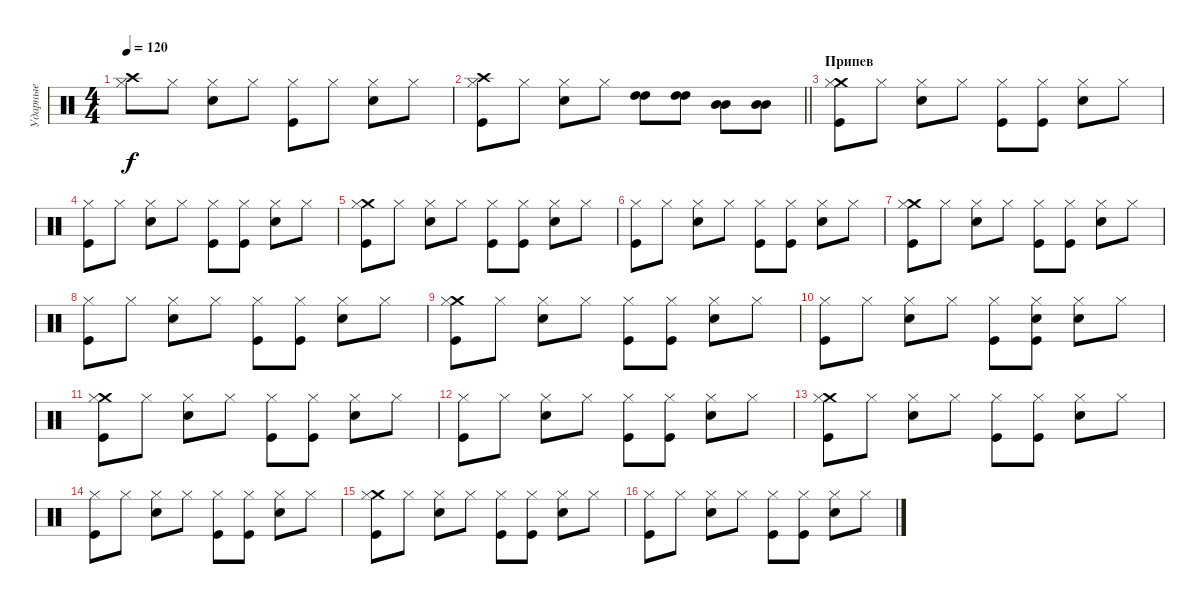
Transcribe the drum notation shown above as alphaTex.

\track ("Ударные" "Ударные") {instrument percussion}
\staff {score}
\articulation defaults
\ts (4 4)
\tempo 120
\clef neutral
\ks c
("Hi-Hat (closed)" "Crash high (hit)").8{dy f} "Hi-Hat (closed)".8 ("Snare (hit) 2" "Hi-Hat (closed)").8 "Hi-Hat (closed)".8 ("Kick (hit)" "Hi-Hat (closed)").8 "Hi-Hat (closed)".8 ("Snare (hit) 2" "Hi-Hat (closed)").8 "Hi-Hat (closed)".8 |
\barLineRight lightlight
("Kick (hit)" "Hi-Hat (closed)" "Crash high (hit)").8 "Hi-Hat (closed)".8 ("Snare (hit) 2" "Hi-Hat (closed)").8 "Hi-Hat (closed)".8 ("High Tom (hit)" "High Tom (hit)").8 ("High Tom (hit)" "High Tom (hit)").8 ("Mid Tom (hit)" "Mid Tom (hit)").8 ("Mid Tom (hit)" "Mid Tom (hit)").8 |
\section ("" "Припев")
("Crash medium (hit)" "Hi-Hat (closed)" "Kick (hit)").8 "Hi-Hat (closed)".8 ("Snare (hit) 2" "Hi-Hat (closed)").8 "Hi-Hat (closed)".8 ("Kick (hit)" "Hi-Hat (closed)").8 ("Kick (hit)" "Hi-Hat (closed)").8 ("Snare (hit) 2" "Hi-Hat (closed)").8 "Hi-Hat (closed)".8 |
("Kick (hit)" "Hi-Hat (closed)").8 "Hi-Hat (closed)".8 ("Snare (hit) 2" "Hi-Hat (closed)").8 "Hi-Hat (closed)".8 ("Kick (hit)" "Hi-Hat (closed)").8 ("Kick (hit)" "Hi-Hat (closed)").8 ("Snare (hit) 2" "Hi-Hat (closed)").8 "Hi-Hat (closed)".8 |
("Crash medium (hit)" "Hi-Hat (closed)" "Kick (hit)").8 "Hi-Hat (closed)".8 ("Snare (hit) 2" "Hi-Hat (closed)").8 "Hi-Hat (closed)".8 ("Kick (hit)" "Hi-Hat (closed)").8 ("Kick (hit)" "Hi-Hat (closed)").8 ("Snare (hit) 2" "Hi-Hat (closed)").8 "Hi-Hat (closed)".8 |
("Kick (hit)" "Hi-Hat (closed)").8 "Hi-Hat (closed)".8 ("Snare (hit) 2" "Hi-Hat (closed)").8 "Hi-Hat (closed)".8 ("Kick (hit)" "Hi-Hat (closed)").8 ("Kick (hit)" "Hi-Hat (closed)").8 ("Snare (hit) 2" "Hi-Hat (closed)").8 "Hi-Hat (closed)".8 |
("Crash medium (hit)" "Hi-Hat (closed)" "Kick (hit)").8 "Hi-Hat (closed)".8 ("Snare (hit) 2" "Hi-Hat (closed)").8 "Hi-Hat (closed)".8 ("Kick (hit)" "Hi-Hat (closed)").8 ("Kick (hit)" "Hi-Hat (closed)").8 ("Snare (hit) 2" "Hi-Hat (closed)").8 "Hi-Hat (closed)".8 |
("Kick (hit)" "Hi-Hat (closed)").8 "Hi-Hat (closed)".8 ("Snare (hit) 2" "Hi-Hat (closed)").8 "Hi-Hat (closed)".8 ("Kick (hit)" "Hi-Hat (closed)").8 ("Kick (hit)" "Hi-Hat (closed)").8 ("Snare (hit) 2" "Hi-Hat (closed)").8 "Hi-Hat (closed)".8 |
("Crash medium (hit)" "Hi-Hat (closed)" "Kick (hit)").8 "Hi-Hat (closed)".8 ("Snare (hit) 2" "Hi-Hat (closed)").8 "Hi-Hat (closed)".8 ("Kick (hit)" "Hi-Hat (closed)").8 ("Kick (hit)" "Hi-Hat (closed)").8 ("Snare (hit) 2" "Hi-Hat (closed)").8 "Hi-Hat (closed)".8 |
("Kick (hit)" "Hi-Hat (closed)").8 "Hi-Hat (closed)".8 ("Snare (hit) 2" "Hi-Hat (closed)").8 "Hi-Hat (closed)".8 ("Kick (hit)" "Hi-Hat (closed)").8 ("Kick (hit)" "Hi-Hat (closed)" "Snare (hit) 2").8 ("Snare (hit) 2" "Hi-Hat (closed)").8 "Hi-Hat (closed)".8 |
("Crash medium (hit)" "Hi-Hat (closed)" "Kick (hit)").8 "Hi-Hat (closed)".8 ("Snare (hit) 2" "Hi-Hat (closed)").8 "Hi-Hat (closed)".8 ("Kick (hit)" "Hi-Hat (closed)").8 ("Kick (hit)" "Hi-Hat (closed)").8 ("Snare (hit) 2" "Hi-Hat (closed)").8 "Hi-Hat (closed)".8 |
("Kick (hit)" "Hi-Hat (closed)").8 "Hi-Hat (closed)".8 ("Snare (hit) 2" "Hi-Hat (closed)").8 "Hi-Hat (closed)".8 ("Kick (hit)" "Hi-Hat (closed)").8 ("Kick (hit)" "Hi-Hat (closed)").8 ("Snare (hit) 2" "Hi-Hat (closed)").8 "Hi-Hat (closed)".8 |
("Crash medium (hit)" "Hi-Hat (closed)" "Kick (hit)").8 "Hi-Hat (closed)".8 ("Snare (hit) 2" "Hi-Hat (closed)").8 "Hi-Hat (closed)".8 ("Kick (hit)" "Hi-Hat (closed)").8 ("Kick (hit)" "Hi-Hat (closed)").8 ("Snare (hit) 2" "Hi-Hat (closed)").8 "Hi-Hat (closed)".8 |
("Kick (hit)" "Hi-Hat (closed)").8 "Hi-Hat (closed)".8 ("Snare (hit) 2" "Hi-Hat (closed)").8 "Hi-Hat (closed)".8 ("Kick (hit)" "Hi-Hat (closed)").8 ("Kick (hit)" "Hi-Hat (closed)").8 ("Snare (hit) 2" "Hi-Hat (closed)").8 "Hi-Hat (closed)".8 |
("Crash medium (hit)" "Hi-Hat (closed)" "Kick (hit)").8 "Hi-Hat (closed)".8 ("Snare (hit) 2" "Hi-Hat (closed)").8 "Hi-Hat (closed)".8 ("Kick (hit)" "Hi-Hat (closed)").8 ("Kick (hit)" "Hi-Hat (closed)").8 ("Snare (hit) 2" "Hi-Hat (closed)").8 "Hi-Hat (closed)".8 |
("Kick (hit)" "Hi-Hat (closed)").8 "Hi-Hat (closed)".8 ("Snare (hit) 2" "Hi-Hat (closed)").8 "Hi-Hat (closed)".8 ("Kick (hit)" "Hi-Hat (closed)").8 ("Kick (hit)" "Hi-Hat (closed)").8 ("Snare (hit) 2" "Hi-Hat (closed)").8 "Hi-Hat (closed)".8
